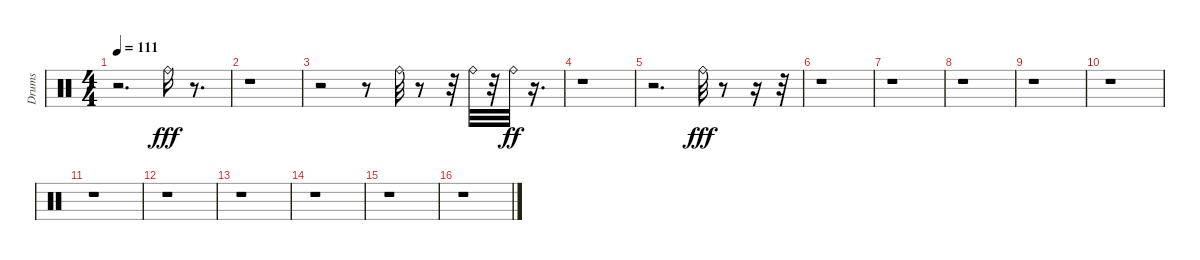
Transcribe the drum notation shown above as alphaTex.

\track ("Drums" "Drums") {instrument percussion}
\staff {score}
\articulation defaults
\ts (4 4)
\tempo 111
\clef neutral
\ks c
r.2{d dy ff} "Ride (bell)".16{dy fff} r.8{d} |
r.1 |
r.2 r.8 "Ride (bell)".32 r.8 r.32 "Ride (bell)".32 r.32 "Ride (bell)".32{dy ff} r.16{d} |
r.1 |
r.2{d} "Ride (bell)".32{dy fff} r.8 r.16 r.32 |
r.1 |
r.1 |
r.1 |
r.1 |
r.1 |
r.1 |
r.1 |
r.1 |
r.1 |
r.1 |
r.1
